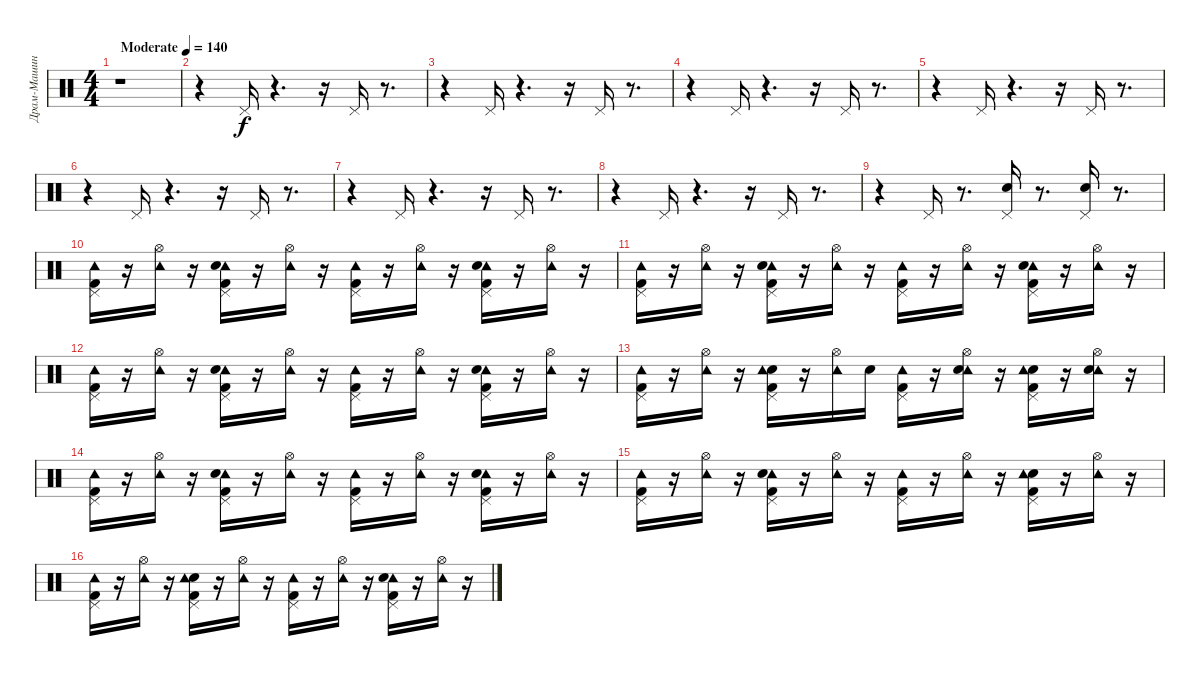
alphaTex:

\track ("Драм-Машина" "Драм-Машин") {instrument percussion}
\staff {score}
\articulation defaults
\ts (4 4)
\tempo (140 "Moderate")
\clef neutral
\ks c
r.1{dy f} |
r.4 "Pedal Hi-Hat (hit)".16 r.4{d} r.16 "Pedal Hi-Hat (hit)".16 r.8{d} |
r.4 "Pedal Hi-Hat (hit)".16 r.4{d} r.16 "Pedal Hi-Hat (hit)".16 r.8{d} |
r.4 "Pedal Hi-Hat (hit)".16 r.4{d} r.16 "Pedal Hi-Hat (hit)".16 r.8{d} |
r.4 "Pedal Hi-Hat (hit)".16 r.4{d} r.16 "Pedal Hi-Hat (hit)".16 r.8{d} |
r.4 "Pedal Hi-Hat (hit)".16 r.4{d} r.16 "Pedal Hi-Hat (hit)".16 r.8{d} |
r.4 "Pedal Hi-Hat (hit)".16 r.4{d} r.16 "Pedal Hi-Hat (hit)".16 r.8{d} |
r.4 "Pedal Hi-Hat (hit)".16 r.4{d} r.16 "Pedal Hi-Hat (hit)".16 r.8{d} |
r.4 "Pedal Hi-Hat (hit)".16 r.8{d} ("Snare (hit) 2" "Pedal Hi-Hat (hit)").16 r.8{d} ("Pedal Hi-Hat (hit)" "Snare (hit) 2").16 r.8{d} |
("Pedal Hi-Hat (hit)" "Tambourine (hit)" "Kick (hit) 2").16 r.16 ("Tambourine (hit)" "Hi-Hat (open)").16 r.16 ("Kick (hit) 2" "Tambourine (hit)" "Snare (hit) 2" "Pedal Hi-Hat (hit)").16 r.16 ("Tambourine (hit)" "Hi-Hat (open)").16 r.16 ("Tambourine (hit)" "Pedal Hi-Hat (hit)" "Kick (hit) 2").16 r.16 ("Hi-Hat (open)" "Tambourine (hit)").16 r.16 ("Kick (hit) 2" "Tambourine (hit)" "Snare (hit) 2" "Pedal Hi-Hat (hit)").16 r.16 ("Hi-Hat (open)" "Tambourine (hit)").16 r.16 |
("Pedal Hi-Hat (hit)" "Tambourine (hit)" "Kick (hit) 2").16 r.16 ("Tambourine (hit)" "Hi-Hat (open)").16 r.16 ("Kick (hit) 2" "Pedal Hi-Hat (hit)" "Tambourine (hit)" "Snare (hit) 2").16 r.16 ("Hi-Hat (open)" "Tambourine (hit)").16 r.16 ("Tambourine (hit)" "Pedal Hi-Hat (hit)" "Kick (hit) 2").16 r.16 ("Hi-Hat (open)" "Tambourine (hit)").16 r.16 ("Kick (hit) 2" "Tambourine (hit)" "Snare (hit) 2" "Pedal Hi-Hat (hit)").16 r.16 ("Tambourine (hit)" "Hi-Hat (open)").16 r.16 |
("Tambourine (hit)" "Kick (hit) 2" "Pedal Hi-Hat (hit)").16 r.16 ("Tambourine (hit)" "Hi-Hat (open)").16 r.16 ("Kick (hit) 2" "Pedal Hi-Hat (hit)" "Tambourine (hit)" "Snare (hit) 2").16 r.16 ("Tambourine (hit)" "Hi-Hat (open)").16 r.16 ("Pedal Hi-Hat (hit)" "Kick (hit) 2" "Tambourine (hit)").16 r.16 ("Tambourine (hit)" "Hi-Hat (open)").16 r.16 ("Kick (hit) 2" "Tambourine (hit)" "Snare (hit) 2" "Pedal Hi-Hat (hit)").16 r.16 ("Tambourine (hit)" "Hi-Hat (open)").16 r.16 |
("Kick (hit) 2" "Pedal Hi-Hat (hit)" "Tambourine (hit)").16 r.16 ("Hi-Hat (open)" "Tambourine (hit)").16 r.16 ("Kick (hit) 2" "Snare (hit) 2" "Tambourine (hit)" "Pedal Hi-Hat (hit)").16 r.16 ("Hi-Hat (open)" "Tambourine (hit)").16 "Snare (hit) 2".16 ("Pedal Hi-Hat (hit)" "Tambourine (hit)" "Kick (hit) 2").16 r.16 ("Hi-Hat (open)" "Tambourine (hit)" "Snare (hit) 2").16 r.16 ("Kick (hit) 2" "Pedal Hi-Hat (hit)" "Snare (hit) 2" "Tambourine (hit)").16 r.16 ("Tambourine (hit)" "Snare (hit) 2" "Hi-Hat (open)").16 r.16 |
("Tambourine (hit)" "Kick (hit) 2" "Pedal Hi-Hat (hit)").16 r.16 ("Hi-Hat (open)" "Tambourine (hit)").16 r.16 ("Kick (hit) 2" "Tambourine (hit)" "Snare (hit) 2" "Pedal Hi-Hat (hit)").16 r.16 ("Tambourine (hit)" "Hi-Hat (open)").16 r.16 ("Pedal Hi-Hat (hit)" "Tambourine (hit)" "Kick (hit) 2").16 r.16 ("Hi-Hat (open)" "Tambourine (hit)").16 r.16 ("Kick (hit) 2" "Tambourine (hit)" "Snare (hit) 2" "Pedal Hi-Hat (hit)").16 r.16 ("Tambourine (hit)" "Hi-Hat (open)").16 r.16 |
("Pedal Hi-Hat (hit)" "Tambourine (hit)" "Kick (hit) 2").16 r.16 ("Hi-Hat (open)" "Tambourine (hit)").16 r.16 ("Kick (hit) 2" "Pedal Hi-Hat (hit)" "Tambourine (hit)" "Snare (hit) 2").16 r.16 ("Hi-Hat (open)" "Tambourine (hit)").16 r.16 ("Tambourine (hit)" "Kick (hit) 2" "Pedal Hi-Hat (hit)").16 r.16 ("Hi-Hat (open)" "Tambourine (hit)").16 r.16 ("Kick (hit) 2" "Snare (hit) 2" "Pedal Hi-Hat (hit)" "Tambourine (hit)").16 r.16 ("Tambourine (hit)" "Hi-Hat (open)").16 r.16 |
("Pedal Hi-Hat (hit)" "Tambourine (hit)" "Kick (hit) 2").16 r.16 ("Tambourine (hit)" "Hi-Hat (open)").16 r.16 ("Kick (hit) 2" "Pedal Hi-Hat (hit)" "Snare (hit) 2" "Tambourine (hit)").16 r.16 ("Hi-Hat (open)" "Tambourine (hit)").16 r.16 ("Tambourine (hit)" "Kick (hit) 2" "Pedal Hi-Hat (hit)").16 r.16 ("Tambourine (hit)" "Hi-Hat (open)").16 r.16 ("Kick (hit) 2" "Pedal Hi-Hat (hit)" "Tambourine (hit)" "Snare (hit) 2").16 r.16 ("Tambourine (hit)" "Hi-Hat (open)").16 r.16
